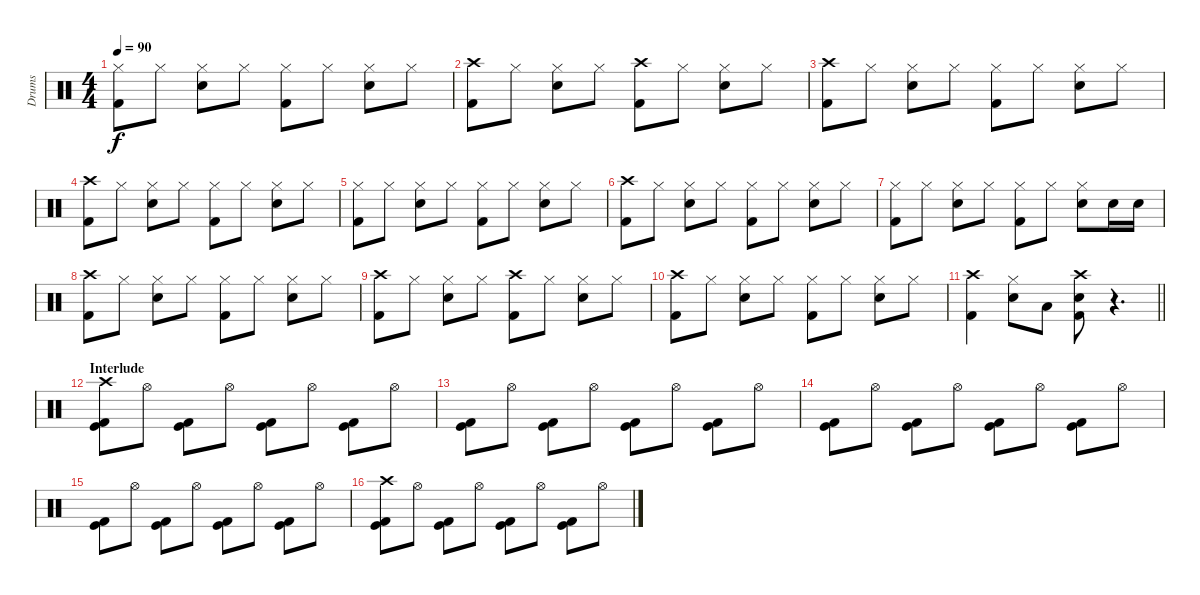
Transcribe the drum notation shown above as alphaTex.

\track ("Drums" "Drums") {instrument percussion}
\staff {score}
\articulation defaults
\ts (4 4)
\tempo 90
\clef neutral
\ks c
("Hi-Hat (closed)" "Kick (hit) 2").8{dy f} "Hi-Hat (closed)".8 ("Hi-Hat (closed)" "Snare (hit) 2").8 "Hi-Hat (closed)".8 ("Hi-Hat (closed)" "Kick (hit) 2").8 "Hi-Hat (closed)".8 ("Hi-Hat (closed)" "Snare (hit) 2").8 "Hi-Hat (closed)".8 |
("Crash high (hit)" "Kick (hit) 2").8 "Hi-Hat (closed)".8 ("Hi-Hat (closed)" "Snare (hit) 2").8 "Hi-Hat (closed)".8 ("Crash high (hit)" "Kick (hit) 2").8 "Hi-Hat (closed)".8 ("Hi-Hat (closed)" "Snare (hit) 2").8 "Hi-Hat (closed)".8 |
("Crash high (hit)" "Kick (hit) 2").8 "Hi-Hat (closed)".8 ("Hi-Hat (closed)" "Snare (hit) 2").8 "Hi-Hat (closed)".8 ("Hi-Hat (closed)" "Kick (hit) 2").8 "Hi-Hat (closed)".8 ("Hi-Hat (closed)" "Snare (hit) 2").8 "Hi-Hat (closed)".8 |
("Crash high (hit)" "Kick (hit) 2").8 "Hi-Hat (closed)".8 ("Hi-Hat (closed)" "Snare (hit) 2").8 "Hi-Hat (closed)".8 ("Hi-Hat (closed)" "Kick (hit) 2").8 "Hi-Hat (closed)".8 ("Hi-Hat (closed)" "Snare (hit) 2").8 "Hi-Hat (closed)".8 |
("Hi-Hat (closed)" "Kick (hit) 2").8 "Hi-Hat (closed)".8 ("Hi-Hat (closed)" "Snare (hit) 2").8 "Hi-Hat (closed)".8 ("Hi-Hat (closed)" "Kick (hit) 2").8 "Hi-Hat (closed)".8 ("Hi-Hat (closed)" "Snare (hit) 2").8 "Hi-Hat (closed)".8 |
("Crash high (hit)" "Kick (hit) 2").8 "Hi-Hat (closed)".8 ("Hi-Hat (closed)" "Snare (hit) 2").8 "Hi-Hat (closed)".8 ("Hi-Hat (closed)" "Kick (hit) 2").8 "Hi-Hat (closed)".8 ("Hi-Hat (closed)" "Snare (hit) 2").8 "Hi-Hat (closed)".8 |
("Hi-Hat (closed)" "Kick (hit) 2").8 "Hi-Hat (closed)".8 ("Hi-Hat (closed)" "Snare (hit) 2").8 "Hi-Hat (closed)".8 ("Hi-Hat (closed)" "Kick (hit) 2").8 "Hi-Hat (closed)".8 ("Hi-Hat (closed)" "Snare (hit) 2").8 "Snare (hit) 2".16 "Snare (hit) 2".16 |
("Crash high (hit)" "Kick (hit) 2").8 "Hi-Hat (closed)".8 ("Hi-Hat (closed)" "Snare (hit) 2").8 "Hi-Hat (closed)".8 ("Hi-Hat (closed)" "Kick (hit) 2").8 "Hi-Hat (closed)".8 ("Hi-Hat (closed)" "Snare (hit) 2").8 "Hi-Hat (closed)".8 |
("Crash high (hit)" "Kick (hit) 2").8 "Hi-Hat (closed)".8 ("Hi-Hat (closed)" "Snare (hit) 2").8 "Hi-Hat (closed)".8 ("Crash high (hit)" "Kick (hit) 2").8 "Hi-Hat (closed)".8 ("Hi-Hat (closed)" "Snare (hit) 2").8 "Hi-Hat (closed)".8 |
("Crash high (hit)" "Kick (hit) 2").8 "Hi-Hat (closed)".8 ("Hi-Hat (closed)" "Snare (hit) 2").8 "Hi-Hat (closed)".8 ("Hi-Hat (closed)" "Kick (hit) 2").8 "Hi-Hat (closed)".8 ("Hi-Hat (closed)" "Snare (hit) 2").8 "Hi-Hat (closed)".8 |
\barLineRight lightlight
("Crash high (hit)" "Kick (hit) 2").4 ("Hi-Hat (closed)" "Snare (hit) 2").8 "Low Tom (hit)".8 ("Crash high (hit)" "Snare (hit) 2" "Kick (hit) 2").8 r.4{d} |
\section ("" "Interlude")
("Crash high (hit)" "Kick (hit)" "Kick (hit) 2").8 "Hi-Hat (open)".8 ("Kick (hit)" "Kick (hit) 2").8 "Hi-Hat (open)".8 ("Kick (hit)" "Kick (hit) 2").8 "Hi-Hat (open)".8 ("Kick (hit)" "Kick (hit) 2").8 "Hi-Hat (open)".8 |
("Kick (hit)" "Kick (hit) 2").8 "Hi-Hat (open)".8 ("Kick (hit)" "Kick (hit) 2").8 "Hi-Hat (open)".8 ("Kick (hit)" "Kick (hit) 2").8 "Hi-Hat (open)".8 ("Kick (hit)" "Kick (hit) 2").8 "Hi-Hat (open)".8 |
("Kick (hit)" "Kick (hit) 2").8 "Hi-Hat (open)".8 ("Kick (hit)" "Kick (hit) 2").8 "Hi-Hat (open)".8 ("Kick (hit)" "Kick (hit) 2").8 "Hi-Hat (open)".8 ("Kick (hit)" "Kick (hit) 2").8 "Hi-Hat (open)".8 |
("Kick (hit)" "Kick (hit) 2").8 "Hi-Hat (open)".8 ("Kick (hit)" "Kick (hit) 2").8 "Hi-Hat (open)".8 ("Kick (hit)" "Kick (hit) 2").8 "Hi-Hat (open)".8 ("Kick (hit)" "Kick (hit) 2").8 "Hi-Hat (open)".8 |
("Crash high (hit)" "Kick (hit)" "Kick (hit) 2").8 "Hi-Hat (open)".8 ("Kick (hit)" "Kick (hit) 2").8 "Hi-Hat (open)".8 ("Kick (hit)" "Kick (hit) 2").8 "Hi-Hat (open)".8 ("Kick (hit)" "Kick (hit) 2").8 "Hi-Hat (open)".8
